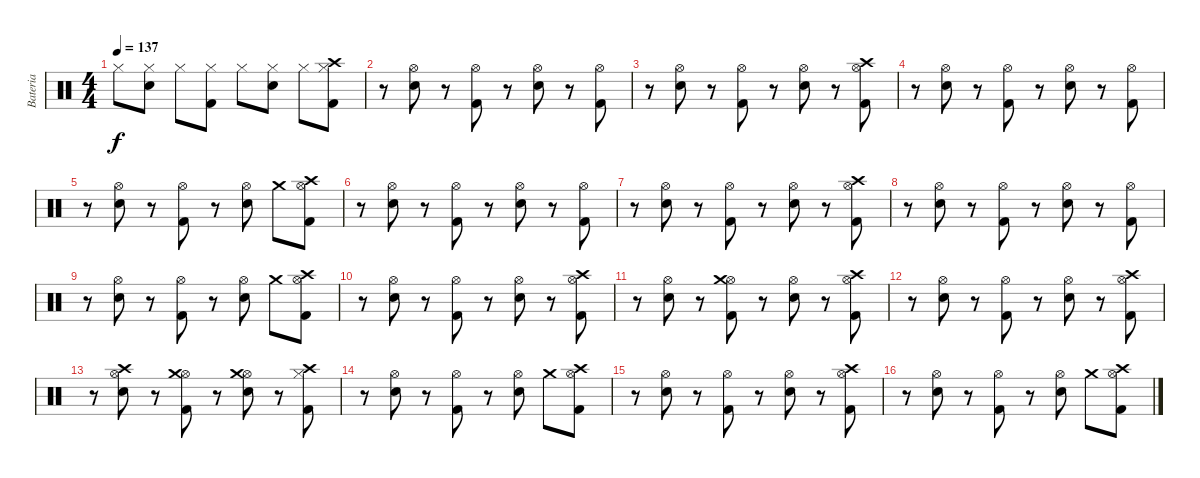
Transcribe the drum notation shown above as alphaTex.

\track ("Bateria" "Bateria") {instrument percussion}
\staff {score}
\articulation defaults
\ts (4 4)
\tempo 137
\clef neutral
\ks c "Hi-Hat (closed)".8{dy f}
("Electric Snare (hit)" "Hi-Hat (closed)").8 "Hi-Hat (closed)".8 ("Kick (hit) 2" "Hi-Hat (closed)").8 "Hi-Hat (closed)".8 ("Electric Snare (hit)" "Hi-Hat (closed)").8 "Hi-Hat (closed)".8 ("Kick (hit) 2" "Hi-Hat (closed)" "Crash high (hit)").8 |
r.8 ("Snare (hit) 2" "Hi-Hat (open)").8 r.8 ("Kick (hit) 2" "Hi-Hat (open)").8 r.8 ("Snare (hit) 2" "Hi-Hat (open)").8 r.8 ("Kick (hit) 2" "Hi-Hat (open)").8 |
r.8 ("Snare (hit) 2" "Hi-Hat (open)").8 r.8 ("Kick (hit) 2" "Hi-Hat (open)").8 r.8 ("Snare (hit) 2" "Hi-Hat (open)").8 r.8 ("Kick (hit) 2" "Hi-Hat (open)" "Crash high (hit)").8 |
r.8 ("Snare (hit) 2" "Hi-Hat (open)").8 r.8 ("Kick (hit) 2" "Hi-Hat (open)").8 r.8 ("Snare (hit) 2" "Hi-Hat (open)").8 r.8 ("Kick (hit) 2" "Hi-Hat (open)").8 |
r.8 ("Snare (hit) 2" "Hi-Hat (open)").8 r.8 ("Kick (hit) 2" "Hi-Hat (open)").8 r.8 ("Snare (hit) 2" "Hi-Hat (open)").8 "Crash medium (hit)".8 ("Kick (hit) 2" "Hi-Hat (open)" "Crash high (hit)").8 |
r.8 ("Snare (hit) 2" "Hi-Hat (open)").8 r.8 ("Kick (hit) 2" "Hi-Hat (open)").8 r.8 ("Snare (hit) 2" "Hi-Hat (open)").8 r.8 ("Kick (hit) 2" "Hi-Hat (open)").8 |
r.8 ("Snare (hit) 2" "Hi-Hat (open)").8 r.8 ("Kick (hit) 2" "Hi-Hat (open)").8 r.8 ("Snare (hit) 2" "Hi-Hat (open)").8 r.8 ("Kick (hit) 2" "Hi-Hat (open)" "Crash high (hit)").8 |
r.8 ("Snare (hit) 2" "Hi-Hat (open)").8 r.8 ("Kick (hit) 2" "Hi-Hat (open)").8 r.8 ("Snare (hit) 2" "Hi-Hat (open)").8 r.8 ("Kick (hit) 2" "Hi-Hat (open)").8 |
r.8 ("Snare (hit) 2" "Hi-Hat (open)").8 r.8 ("Kick (hit) 2" "Hi-Hat (open)").8 r.8 ("Snare (hit) 2" "Hi-Hat (open)").8 "Crash medium (hit)".8 ("Kick (hit) 2" "Hi-Hat (open)" "Crash high (hit)").8 |
r.8 ("Snare (hit) 2" "Hi-Hat (open)").8 r.8 ("Kick (hit) 2" "Hi-Hat (open)").8 r.8 ("Snare (hit) 2" "Hi-Hat (open)").8 r.8 ("Kick (hit) 2" "Hi-Hat (open)" "Crash high (hit)").8 |
r.8 ("Snare (hit) 2" "Hi-Hat (open)").8 r.8 ("Kick (hit) 2" "Hi-Hat (open)" "Crash medium (hit)").8 r.8 ("Snare (hit) 2" "Hi-Hat (open)").8 r.8 ("Kick (hit) 2" "Hi-Hat (open)" "Crash high (hit)").8 |
r.8 ("Snare (hit) 2" "Hi-Hat (open)").8 r.8 ("Kick (hit) 2" "Hi-Hat (open)").8 r.8 ("Snare (hit) 2" "Hi-Hat (open)").8 r.8 ("Kick (hit) 2" "Hi-Hat (open)" "Crash high (hit)").8 |
r.8 ("Snare (hit) 2" "Hi-Hat (open)" "Crash high (hit)").8 r.8 ("Kick (hit) 2" "Hi-Hat (open)" "Crash medium (hit)").8 r.8 ("Snare (hit) 2" "Hi-Hat (open)" "Crash medium (hit)").8 r.8 ("Kick (hit) 2" "Hi-Hat (closed)" "Crash high (hit)").8 |
r.8 ("Snare (hit) 2" "Hi-Hat (open)").8 r.8 ("Kick (hit) 2" "Hi-Hat (open)").8 r.8 ("Snare (hit) 2" "Hi-Hat (open)").8 "Crash medium (hit)".8 ("Kick (hit) 2" "Hi-Hat (open)" "Crash high (hit)").8 |
r.8 ("Snare (hit) 2" "Hi-Hat (open)").8 r.8 ("Kick (hit) 2" "Hi-Hat (open)").8 r.8 ("Snare (hit) 2" "Hi-Hat (open)").8 r.8 ("Kick (hit) 2" "Hi-Hat (open)" "Crash high (hit)").8 |
r.8 ("Snare (hit) 2" "Hi-Hat (open)").8 r.8 ("Kick (hit) 2" "Hi-Hat (open)").8 r.8 ("Snare (hit) 2" "Hi-Hat (open)").8 "Crash medium (hit)".8 ("Kick (hit) 2" "Hi-Hat (open)" "Crash high (hit)").8
